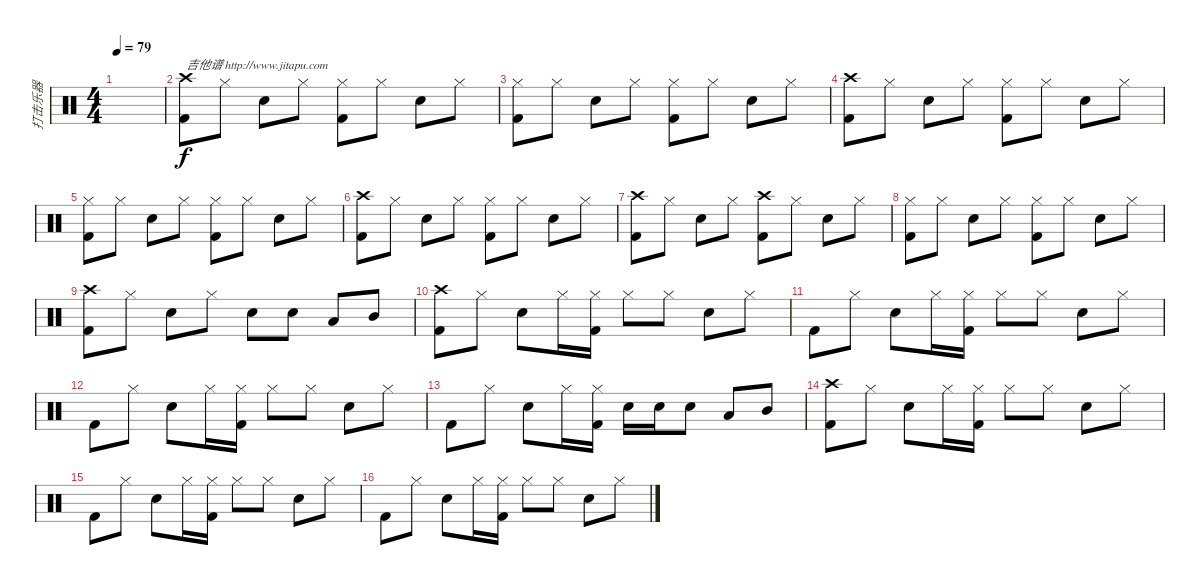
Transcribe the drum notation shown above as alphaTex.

\track ("打击乐器" "打击乐器") {instrument percussion}
\staff {score}
\articulation defaults
\ts (4 4)
\tempo 79
\clef neutral
\ks c
|
("Crash high (hit)" "Kick (hit) 2").8{txt "吉他谱 http://www.jitapu.com"} "Hi-Hat (closed)".8 "Electric Snare (hit)".8 "Hi-Hat (closed)".8 ("Hi-Hat (closed)" "Kick (hit) 2").8 "Hi-Hat (closed)".8 "Electric Snare (hit)".8 "Hi-Hat (closed)".8 |
("Hi-Hat (closed)" "Kick (hit) 2").8 "Hi-Hat (closed)".8 "Electric Snare (hit)".8 "Hi-Hat (closed)".8 ("Hi-Hat (closed)" "Kick (hit) 2").8 "Hi-Hat (closed)".8 "Electric Snare (hit)".8 "Hi-Hat (closed)".8 |
("Crash high (hit)" "Kick (hit) 2").8 "Hi-Hat (closed)".8 "Electric Snare (hit)".8 "Hi-Hat (closed)".8 ("Hi-Hat (closed)" "Kick (hit) 2").8 "Hi-Hat (closed)".8 "Electric Snare (hit)".8 "Hi-Hat (closed)".8 |
("Hi-Hat (closed)" "Kick (hit) 2").8 "Hi-Hat (closed)".8 "Electric Snare (hit)".8 "Hi-Hat (closed)".8 ("Hi-Hat (closed)" "Kick (hit) 2").8 "Hi-Hat (closed)".8 "Electric Snare (hit)".8 "Hi-Hat (closed)".8 |
("Crash high (hit)" "Kick (hit) 2").8 "Hi-Hat (closed)".8 "Electric Snare (hit)".8 "Hi-Hat (closed)".8 ("Hi-Hat (closed)" "Kick (hit) 2").8 "Hi-Hat (closed)".8 "Electric Snare (hit)".8 "Hi-Hat (closed)".8 |
("Crash high (hit)" "Kick (hit) 2").8 "Hi-Hat (closed)".8 "Electric Snare (hit)".8 "Hi-Hat (closed)".8 ("Crash high (hit)" "Kick (hit) 2").8 "Hi-Hat (closed)".8 "Electric Snare (hit)".8 "Hi-Hat (closed)".8 |
("Hi-Hat (closed)" "Kick (hit) 2").8 "Hi-Hat (closed)".8 "Electric Snare (hit)".8 "Hi-Hat (closed)".8 ("Hi-Hat (closed)" "Kick (hit) 2").8 "Hi-Hat (closed)".8 "Electric Snare (hit)".8 "Hi-Hat (closed)".8 |
("Crash high (hit)" "Kick (hit) 2").8 "Hi-Hat (closed)".8 "Electric Snare (hit)".8 "Hi-Hat (closed)".8 "Electric Snare (hit)".8 "Electric Snare (hit)".8 "Low Tom (hit)".8 "Mid Tom (hit)".8 |
("Crash high (hit)" "Kick (hit) 2").8 "Hi-Hat (closed)".8 "Electric Snare (hit)".8 "Hi-Hat (closed)".16 ("Hi-Hat (closed)" "Kick (hit) 2").16 "Hi-Hat (closed)".8 "Hi-Hat (closed)".8 "Electric Snare (hit)".8 "Hi-Hat (closed)".8 |
"Kick (hit) 2".8 "Hi-Hat (closed)".8 "Electric Snare (hit)".8 "Hi-Hat (closed)".16 ("Hi-Hat (closed)" "Kick (hit) 2").16 "Hi-Hat (closed)".8 "Hi-Hat (closed)".8 "Electric Snare (hit)".8 "Hi-Hat (closed)".8 |
"Kick (hit) 2".8 "Hi-Hat (closed)".8 "Electric Snare (hit)".8 "Hi-Hat (closed)".16 ("Hi-Hat (closed)" "Kick (hit) 2").16 "Hi-Hat (closed)".8 "Hi-Hat (closed)".8 "Electric Snare (hit)".8 "Hi-Hat (closed)".8 |
"Kick (hit) 2".8 "Hi-Hat (closed)".8 "Electric Snare (hit)".8 "Hi-Hat (closed)".16 ("Hi-Hat (closed)" "Kick (hit) 2").16 "Electric Snare (hit)".16 "Electric Snare (hit)".16 "Electric Snare (hit)".8 "Low Tom (hit)".8 "Mid Tom (hit)".8 |
("Crash high (hit)" "Kick (hit) 2").8 "Hi-Hat (closed)".8 "Electric Snare (hit)".8 "Hi-Hat (closed)".16 ("Hi-Hat (closed)" "Kick (hit) 2").16 "Hi-Hat (closed)".8 "Hi-Hat (closed)".8 "Electric Snare (hit)".8 "Hi-Hat (closed)".8 |
"Kick (hit) 2".8 "Hi-Hat (closed)".8 "Electric Snare (hit)".8 "Hi-Hat (closed)".16 ("Hi-Hat (closed)" "Kick (hit) 2").16 "Hi-Hat (closed)".8 "Hi-Hat (closed)".8 "Electric Snare (hit)".8 "Hi-Hat (closed)".8 |
"Kick (hit) 2".8 "Hi-Hat (closed)".8 "Electric Snare (hit)".8 "Hi-Hat (closed)".16 ("Hi-Hat (closed)" "Kick (hit) 2").16 "Hi-Hat (closed)".8 "Hi-Hat (closed)".8 "Electric Snare (hit)".8 "Hi-Hat (closed)".8
